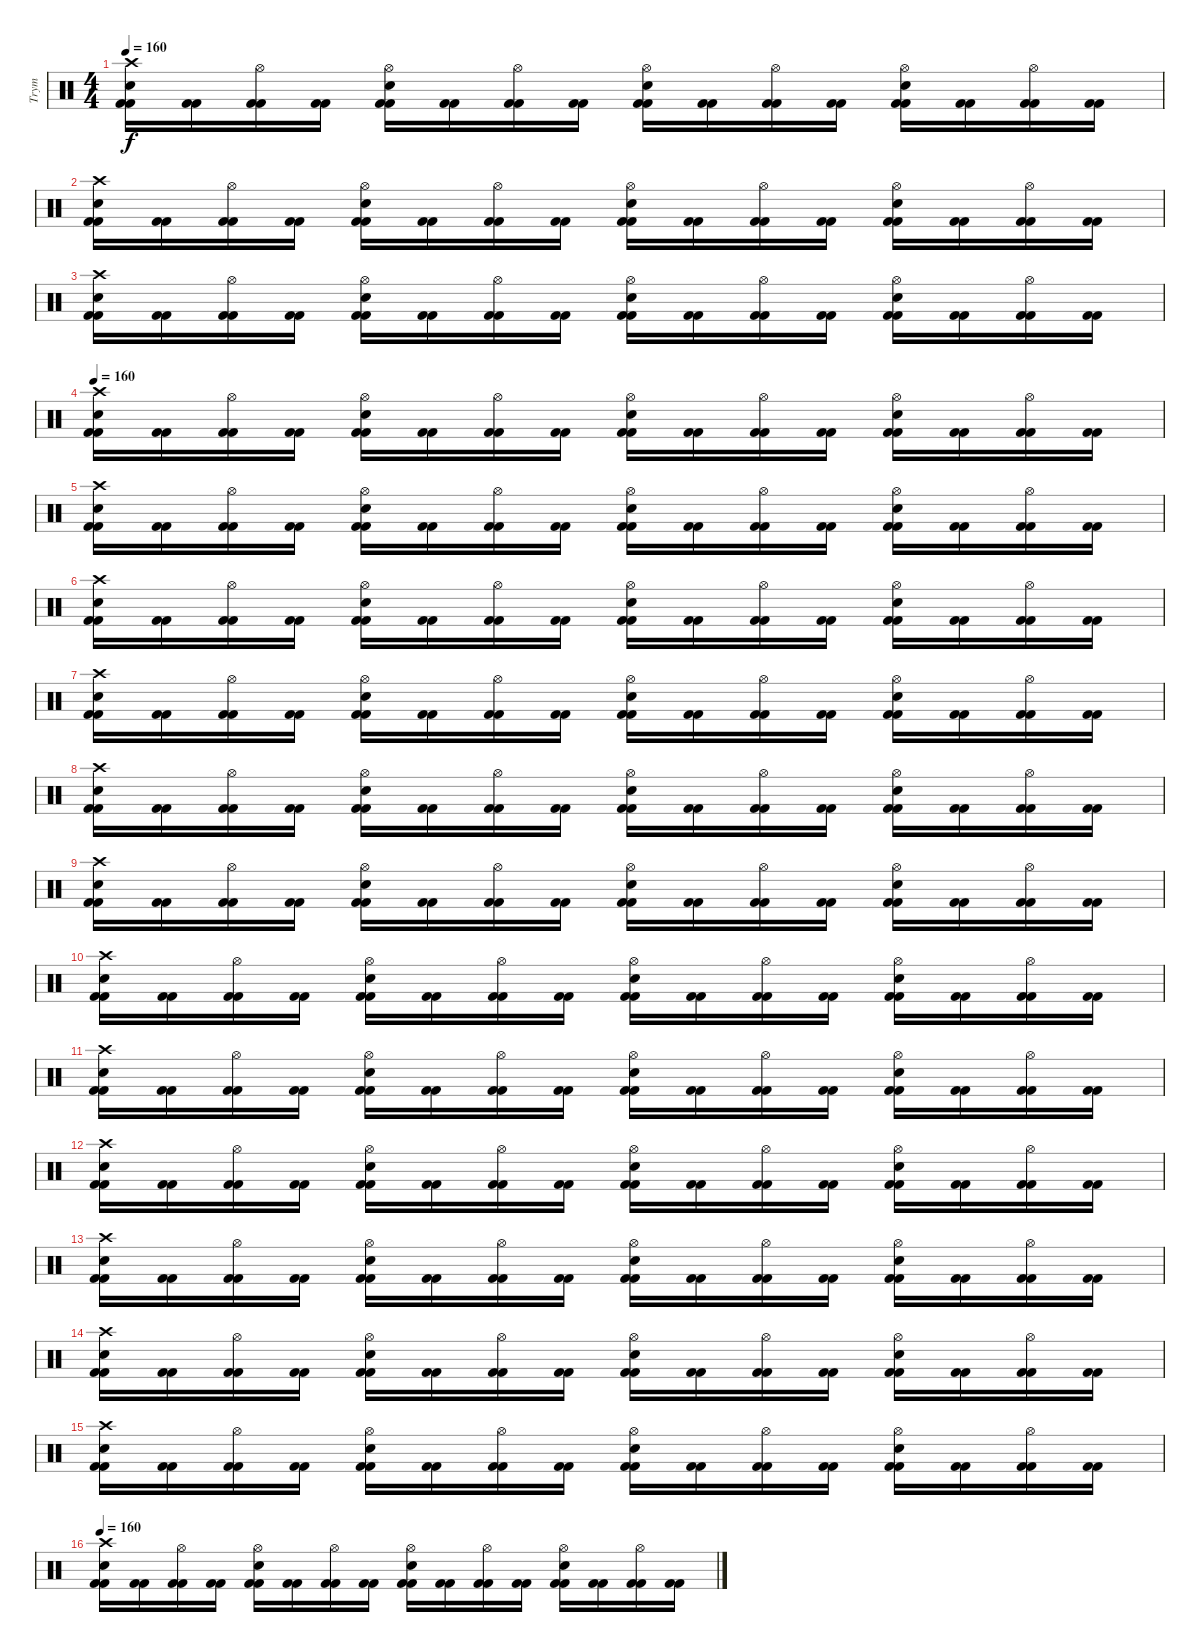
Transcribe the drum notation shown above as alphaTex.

\track ("Trym" "Trym") {instrument percussion}
\staff {score}
\articulation defaults
\ts (4 4)
\tempo 160
\clef neutral
\ks c
("Kick (hit) 2" "Crash high (hit)" "Snare (hit) 2" "Kick (hit) 2").16{dy f} ("Kick (hit) 2" "Kick (hit) 2").16 ("Kick (hit) 2" "Hi-Hat (open)" "Kick (hit) 2").16 ("Kick (hit) 2" "Kick (hit) 2").16 ("Kick (hit) 2" "Hi-Hat (open)" "Snare (hit) 2" "Kick (hit) 2").16 ("Kick (hit) 2" "Kick (hit) 2").16 ("Kick (hit) 2" "Hi-Hat (open)" "Kick (hit) 2").16 ("Kick (hit) 2" "Kick (hit) 2").16 ("Kick (hit) 2" "Hi-Hat (open)" "Snare (hit) 2" "Kick (hit) 2").16 ("Kick (hit) 2" "Kick (hit) 2").16 ("Kick (hit) 2" "Hi-Hat (open)" "Kick (hit) 2").16 ("Kick (hit) 2" "Kick (hit) 2").16 ("Kick (hit) 2" "Hi-Hat (open)" "Snare (hit) 2" "Kick (hit) 2").16 ("Kick (hit) 2" "Kick (hit) 2").16 ("Kick (hit) 2" "Hi-Hat (open)" "Kick (hit) 2").16 ("Kick (hit) 2" "Kick (hit) 2").16 |
("Kick (hit) 2" "Crash high (hit)" "Snare (hit) 2" "Kick (hit) 2").16 ("Kick (hit) 2" "Kick (hit) 2").16 ("Kick (hit) 2" "Hi-Hat (open)" "Kick (hit) 2").16 ("Kick (hit) 2" "Kick (hit) 2").16 ("Kick (hit) 2" "Hi-Hat (open)" "Snare (hit) 2" "Kick (hit) 2").16 ("Kick (hit) 2" "Kick (hit) 2").16 ("Kick (hit) 2" "Hi-Hat (open)" "Kick (hit) 2").16 ("Kick (hit) 2" "Kick (hit) 2").16 ("Kick (hit) 2" "Hi-Hat (open)" "Snare (hit) 2" "Kick (hit) 2").16 ("Kick (hit) 2" "Kick (hit) 2").16 ("Kick (hit) 2" "Hi-Hat (open)" "Kick (hit) 2").16 ("Kick (hit) 2" "Kick (hit) 2").16 ("Kick (hit) 2" "Hi-Hat (open)" "Snare (hit) 2" "Kick (hit) 2").16 ("Kick (hit) 2" "Kick (hit) 2").16 ("Kick (hit) 2" "Hi-Hat (open)" "Kick (hit) 2").16 ("Kick (hit) 2" "Kick (hit) 2").16 |
("Kick (hit) 2" "Crash high (hit)" "Snare (hit) 2" "Kick (hit) 2").16 ("Kick (hit) 2" "Kick (hit) 2").16 ("Kick (hit) 2" "Hi-Hat (open)" "Kick (hit) 2").16 ("Kick (hit) 2" "Kick (hit) 2").16 ("Kick (hit) 2" "Hi-Hat (open)" "Snare (hit) 2" "Kick (hit) 2").16 ("Kick (hit) 2" "Kick (hit) 2").16 ("Kick (hit) 2" "Hi-Hat (open)" "Kick (hit) 2").16 ("Kick (hit) 2" "Kick (hit) 2").16 ("Kick (hit) 2" "Hi-Hat (open)" "Snare (hit) 2" "Kick (hit) 2").16 ("Kick (hit) 2" "Kick (hit) 2").16 ("Kick (hit) 2" "Hi-Hat (open)" "Kick (hit) 2").16 ("Kick (hit) 2" "Kick (hit) 2").16 ("Kick (hit) 2" "Hi-Hat (open)" "Snare (hit) 2" "Kick (hit) 2").16 ("Kick (hit) 2" "Kick (hit) 2").16 ("Kick (hit) 2" "Hi-Hat (open)" "Kick (hit) 2").16 ("Kick (hit) 2" "Kick (hit) 2").16 |
\tempo 160
("Kick (hit) 2" "Crash high (hit)" "Snare (hit) 2" "Kick (hit) 2").16 ("Kick (hit) 2" "Kick (hit) 2").16 ("Kick (hit) 2" "Hi-Hat (open)" "Kick (hit) 2").16 ("Kick (hit) 2" "Kick (hit) 2").16 ("Kick (hit) 2" "Hi-Hat (open)" "Snare (hit) 2" "Kick (hit) 2").16 ("Kick (hit) 2" "Kick (hit) 2").16 ("Kick (hit) 2" "Hi-Hat (open)" "Kick (hit) 2").16 ("Kick (hit) 2" "Kick (hit) 2").16 ("Kick (hit) 2" "Hi-Hat (open)" "Snare (hit) 2" "Kick (hit) 2").16 ("Kick (hit) 2" "Kick (hit) 2").16 ("Kick (hit) 2" "Hi-Hat (open)" "Kick (hit) 2").16 ("Kick (hit) 2" "Kick (hit) 2").16 ("Kick (hit) 2" "Hi-Hat (open)" "Snare (hit) 2" "Kick (hit) 2").16 ("Kick (hit) 2" "Kick (hit) 2").16 ("Kick (hit) 2" "Hi-Hat (open)" "Kick (hit) 2").16 ("Kick (hit) 2" "Kick (hit) 2").16 |
("Kick (hit) 2" "Crash high (hit)" "Snare (hit) 2" "Kick (hit) 2").16 ("Kick (hit) 2" "Kick (hit) 2").16 ("Kick (hit) 2" "Hi-Hat (open)" "Kick (hit) 2").16 ("Kick (hit) 2" "Kick (hit) 2").16 ("Kick (hit) 2" "Hi-Hat (open)" "Snare (hit) 2" "Kick (hit) 2").16 ("Kick (hit) 2" "Kick (hit) 2").16 ("Kick (hit) 2" "Hi-Hat (open)" "Kick (hit) 2").16 ("Kick (hit) 2" "Kick (hit) 2").16 ("Kick (hit) 2" "Hi-Hat (open)" "Snare (hit) 2" "Kick (hit) 2").16 ("Kick (hit) 2" "Kick (hit) 2").16 ("Kick (hit) 2" "Hi-Hat (open)" "Kick (hit) 2").16 ("Kick (hit) 2" "Kick (hit) 2").16 ("Kick (hit) 2" "Hi-Hat (open)" "Snare (hit) 2" "Kick (hit) 2").16 ("Kick (hit) 2" "Kick (hit) 2").16 ("Kick (hit) 2" "Hi-Hat (open)" "Kick (hit) 2").16 ("Kick (hit) 2" "Kick (hit) 2").16 |
("Kick (hit) 2" "Crash high (hit)" "Snare (hit) 2" "Kick (hit) 2").16 ("Kick (hit) 2" "Kick (hit) 2").16 ("Kick (hit) 2" "Hi-Hat (open)" "Kick (hit) 2").16 ("Kick (hit) 2" "Kick (hit) 2").16 ("Kick (hit) 2" "Hi-Hat (open)" "Snare (hit) 2" "Kick (hit) 2").16 ("Kick (hit) 2" "Kick (hit) 2").16 ("Kick (hit) 2" "Hi-Hat (open)" "Kick (hit) 2").16 ("Kick (hit) 2" "Kick (hit) 2").16 ("Kick (hit) 2" "Hi-Hat (open)" "Snare (hit) 2" "Kick (hit) 2").16 ("Kick (hit) 2" "Kick (hit) 2").16 ("Kick (hit) 2" "Hi-Hat (open)" "Kick (hit) 2").16 ("Kick (hit) 2" "Kick (hit) 2").16 ("Kick (hit) 2" "Hi-Hat (open)" "Snare (hit) 2" "Kick (hit) 2").16 ("Kick (hit) 2" "Kick (hit) 2").16 ("Kick (hit) 2" "Hi-Hat (open)" "Kick (hit) 2").16 ("Kick (hit) 2" "Kick (hit) 2").16 |
("Kick (hit) 2" "Crash high (hit)" "Snare (hit) 2" "Kick (hit) 2").16 ("Kick (hit) 2" "Kick (hit) 2").16 ("Kick (hit) 2" "Hi-Hat (open)" "Kick (hit) 2").16 ("Kick (hit) 2" "Kick (hit) 2").16 ("Kick (hit) 2" "Hi-Hat (open)" "Snare (hit) 2" "Kick (hit) 2").16 ("Kick (hit) 2" "Kick (hit) 2").16 ("Kick (hit) 2" "Hi-Hat (open)" "Kick (hit) 2").16 ("Kick (hit) 2" "Kick (hit) 2").16 ("Kick (hit) 2" "Hi-Hat (open)" "Snare (hit) 2" "Kick (hit) 2").16 ("Kick (hit) 2" "Kick (hit) 2").16 ("Kick (hit) 2" "Hi-Hat (open)" "Kick (hit) 2").16 ("Kick (hit) 2" "Kick (hit) 2").16 ("Kick (hit) 2" "Hi-Hat (open)" "Snare (hit) 2" "Kick (hit) 2").16 ("Kick (hit) 2" "Kick (hit) 2").16 ("Kick (hit) 2" "Hi-Hat (open)" "Kick (hit) 2").16 ("Kick (hit) 2" "Kick (hit) 2").16 |
("Kick (hit) 2" "Crash high (hit)" "Snare (hit) 2" "Kick (hit) 2").16 ("Kick (hit) 2" "Kick (hit) 2").16 ("Kick (hit) 2" "Hi-Hat (open)" "Kick (hit) 2").16 ("Kick (hit) 2" "Kick (hit) 2").16 ("Kick (hit) 2" "Hi-Hat (open)" "Snare (hit) 2" "Kick (hit) 2").16 ("Kick (hit) 2" "Kick (hit) 2").16 ("Kick (hit) 2" "Hi-Hat (open)" "Kick (hit) 2").16 ("Kick (hit) 2" "Kick (hit) 2").16 ("Kick (hit) 2" "Hi-Hat (open)" "Snare (hit) 2" "Kick (hit) 2").16 ("Kick (hit) 2" "Kick (hit) 2").16 ("Kick (hit) 2" "Hi-Hat (open)" "Kick (hit) 2").16 ("Kick (hit) 2" "Kick (hit) 2").16 ("Kick (hit) 2" "Hi-Hat (open)" "Snare (hit) 2" "Kick (hit) 2").16 ("Kick (hit) 2" "Kick (hit) 2").16 ("Kick (hit) 2" "Hi-Hat (open)" "Kick (hit) 2").16 ("Kick (hit) 2" "Kick (hit) 2").16 |
("Kick (hit) 2" "Crash high (hit)" "Snare (hit) 2" "Kick (hit) 2").16 ("Kick (hit) 2" "Kick (hit) 2").16 ("Kick (hit) 2" "Hi-Hat (open)" "Kick (hit) 2").16 ("Kick (hit) 2" "Kick (hit) 2").16 ("Kick (hit) 2" "Hi-Hat (open)" "Snare (hit) 2" "Kick (hit) 2").16 ("Kick (hit) 2" "Kick (hit) 2").16 ("Kick (hit) 2" "Hi-Hat (open)" "Kick (hit) 2").16 ("Kick (hit) 2" "Kick (hit) 2").16 ("Kick (hit) 2" "Hi-Hat (open)" "Snare (hit) 2" "Kick (hit) 2").16 ("Kick (hit) 2" "Kick (hit) 2").16 ("Kick (hit) 2" "Hi-Hat (open)" "Kick (hit) 2").16 ("Kick (hit) 2" "Kick (hit) 2").16 ("Kick (hit) 2" "Hi-Hat (open)" "Snare (hit) 2" "Kick (hit) 2").16 ("Kick (hit) 2" "Kick (hit) 2").16 ("Kick (hit) 2" "Hi-Hat (open)" "Kick (hit) 2").16 ("Kick (hit) 2" "Kick (hit) 2").16 |
("Kick (hit) 2" "Crash high (hit)" "Snare (hit) 2" "Kick (hit) 2").16 ("Kick (hit) 2" "Kick (hit) 2").16 ("Kick (hit) 2" "Hi-Hat (open)" "Kick (hit) 2").16 ("Kick (hit) 2" "Kick (hit) 2").16 ("Kick (hit) 2" "Hi-Hat (open)" "Snare (hit) 2" "Kick (hit) 2").16 ("Kick (hit) 2" "Kick (hit) 2").16 ("Kick (hit) 2" "Hi-Hat (open)" "Kick (hit) 2").16 ("Kick (hit) 2" "Kick (hit) 2").16 ("Kick (hit) 2" "Hi-Hat (open)" "Snare (hit) 2" "Kick (hit) 2").16 ("Kick (hit) 2" "Kick (hit) 2").16 ("Kick (hit) 2" "Hi-Hat (open)" "Kick (hit) 2").16 ("Kick (hit) 2" "Kick (hit) 2").16 ("Kick (hit) 2" "Hi-Hat (open)" "Snare (hit) 2" "Kick (hit) 2").16 ("Kick (hit) 2" "Kick (hit) 2").16 ("Kick (hit) 2" "Hi-Hat (open)" "Kick (hit) 2").16 ("Kick (hit) 2" "Kick (hit) 2").16 |
("Kick (hit) 2" "Crash high (hit)" "Snare (hit) 2" "Kick (hit) 2").16 ("Kick (hit) 2" "Kick (hit) 2").16 ("Kick (hit) 2" "Hi-Hat (open)" "Kick (hit) 2").16 ("Kick (hit) 2" "Kick (hit) 2").16 ("Kick (hit) 2" "Hi-Hat (open)" "Snare (hit) 2" "Kick (hit) 2").16 ("Kick (hit) 2" "Kick (hit) 2").16 ("Kick (hit) 2" "Hi-Hat (open)" "Kick (hit) 2").16 ("Kick (hit) 2" "Kick (hit) 2").16 ("Kick (hit) 2" "Hi-Hat (open)" "Snare (hit) 2" "Kick (hit) 2").16 ("Kick (hit) 2" "Kick (hit) 2").16 ("Kick (hit) 2" "Hi-Hat (open)" "Kick (hit) 2").16 ("Kick (hit) 2" "Kick (hit) 2").16 ("Kick (hit) 2" "Hi-Hat (open)" "Snare (hit) 2" "Kick (hit) 2").16 ("Kick (hit) 2" "Kick (hit) 2").16 ("Kick (hit) 2" "Hi-Hat (open)" "Kick (hit) 2").16 ("Kick (hit) 2" "Kick (hit) 2").16 |
("Kick (hit) 2" "Crash high (hit)" "Snare (hit) 2" "Kick (hit) 2").16 ("Kick (hit) 2" "Kick (hit) 2").16 ("Kick (hit) 2" "Hi-Hat (open)" "Kick (hit) 2").16 ("Kick (hit) 2" "Kick (hit) 2").16 ("Kick (hit) 2" "Hi-Hat (open)" "Snare (hit) 2" "Kick (hit) 2").16 ("Kick (hit) 2" "Kick (hit) 2").16 ("Kick (hit) 2" "Hi-Hat (open)" "Kick (hit) 2").16 ("Kick (hit) 2" "Kick (hit) 2").16 ("Kick (hit) 2" "Hi-Hat (open)" "Snare (hit) 2" "Kick (hit) 2").16 ("Kick (hit) 2" "Kick (hit) 2").16 ("Kick (hit) 2" "Hi-Hat (open)" "Kick (hit) 2").16 ("Kick (hit) 2" "Kick (hit) 2").16 ("Kick (hit) 2" "Hi-Hat (open)" "Snare (hit) 2" "Kick (hit) 2").16 ("Kick (hit) 2" "Kick (hit) 2").16 ("Kick (hit) 2" "Hi-Hat (open)" "Kick (hit) 2").16 ("Kick (hit) 2" "Kick (hit) 2").16 |
("Kick (hit) 2" "Crash high (hit)" "Snare (hit) 2" "Kick (hit) 2").16 ("Kick (hit) 2" "Kick (hit) 2").16 ("Kick (hit) 2" "Hi-Hat (open)" "Kick (hit) 2").16 ("Kick (hit) 2" "Kick (hit) 2").16 ("Kick (hit) 2" "Hi-Hat (open)" "Snare (hit) 2" "Kick (hit) 2").16 ("Kick (hit) 2" "Kick (hit) 2").16 ("Kick (hit) 2" "Hi-Hat (open)" "Kick (hit) 2").16 ("Kick (hit) 2" "Kick (hit) 2").16 ("Kick (hit) 2" "Hi-Hat (open)" "Snare (hit) 2" "Kick (hit) 2").16 ("Kick (hit) 2" "Kick (hit) 2").16 ("Kick (hit) 2" "Hi-Hat (open)" "Kick (hit) 2").16 ("Kick (hit) 2" "Kick (hit) 2").16 ("Kick (hit) 2" "Hi-Hat (open)" "Snare (hit) 2" "Kick (hit) 2").16 ("Kick (hit) 2" "Kick (hit) 2").16 ("Kick (hit) 2" "Hi-Hat (open)" "Kick (hit) 2").16 ("Kick (hit) 2" "Kick (hit) 2").16 |
("Kick (hit) 2" "Crash high (hit)" "Snare (hit) 2" "Kick (hit) 2").16 ("Kick (hit) 2" "Kick (hit) 2").16 ("Kick (hit) 2" "Hi-Hat (open)" "Kick (hit) 2").16 ("Kick (hit) 2" "Kick (hit) 2").16 ("Kick (hit) 2" "Hi-Hat (open)" "Snare (hit) 2" "Kick (hit) 2").16 ("Kick (hit) 2" "Kick (hit) 2").16 ("Kick (hit) 2" "Hi-Hat (open)" "Kick (hit) 2").16 ("Kick (hit) 2" "Kick (hit) 2").16 ("Kick (hit) 2" "Hi-Hat (open)" "Snare (hit) 2" "Kick (hit) 2").16 ("Kick (hit) 2" "Kick (hit) 2").16 ("Kick (hit) 2" "Hi-Hat (open)" "Kick (hit) 2").16 ("Kick (hit) 2" "Kick (hit) 2").16 ("Kick (hit) 2" "Hi-Hat (open)" "Snare (hit) 2" "Kick (hit) 2").16 ("Kick (hit) 2" "Kick (hit) 2").16 ("Kick (hit) 2" "Hi-Hat (open)" "Kick (hit) 2").16 ("Kick (hit) 2" "Kick (hit) 2").16 |
("Kick (hit) 2" "Crash high (hit)" "Snare (hit) 2" "Kick (hit) 2").16 ("Kick (hit) 2" "Kick (hit) 2").16 ("Kick (hit) 2" "Hi-Hat (open)" "Kick (hit) 2").16 ("Kick (hit) 2" "Kick (hit) 2").16 ("Kick (hit) 2" "Hi-Hat (open)" "Snare (hit) 2" "Kick (hit) 2").16 ("Kick (hit) 2" "Kick (hit) 2").16 ("Kick (hit) 2" "Hi-Hat (open)" "Kick (hit) 2").16 ("Kick (hit) 2" "Kick (hit) 2").16 ("Kick (hit) 2" "Hi-Hat (open)" "Snare (hit) 2" "Kick (hit) 2").16 ("Kick (hit) 2" "Kick (hit) 2").16 ("Kick (hit) 2" "Hi-Hat (open)" "Kick (hit) 2").16 ("Kick (hit) 2" "Kick (hit) 2").16 ("Kick (hit) 2" "Hi-Hat (open)" "Snare (hit) 2" "Kick (hit) 2").16 ("Kick (hit) 2" "Kick (hit) 2").16 ("Kick (hit) 2" "Hi-Hat (open)" "Kick (hit) 2").16 ("Kick (hit) 2" "Kick (hit) 2").16 |
\tempo 160
("Kick (hit) 2" "Crash high (hit)" "Snare (hit) 2" "Kick (hit) 2").16 ("Kick (hit) 2" "Kick (hit) 2").16 ("Kick (hit) 2" "Hi-Hat (open)" "Kick (hit) 2").16 ("Kick (hit) 2" "Kick (hit) 2").16 ("Kick (hit) 2" "Hi-Hat (open)" "Snare (hit) 2" "Kick (hit) 2").16 ("Kick (hit) 2" "Kick (hit) 2").16 ("Kick (hit) 2" "Hi-Hat (open)" "Kick (hit) 2").16 ("Kick (hit) 2" "Kick (hit) 2").16 ("Kick (hit) 2" "Hi-Hat (open)" "Snare (hit) 2" "Kick (hit) 2").16 ("Kick (hit) 2" "Kick (hit) 2").16 ("Kick (hit) 2" "Hi-Hat (open)" "Kick (hit) 2").16 ("Kick (hit) 2" "Kick (hit) 2").16 ("Kick (hit) 2" "Hi-Hat (open)" "Snare (hit) 2" "Kick (hit) 2").16 ("Kick (hit) 2" "Kick (hit) 2").16 ("Kick (hit) 2" "Hi-Hat (open)" "Kick (hit) 2").16 ("Kick (hit) 2" "Kick (hit) 2").16
